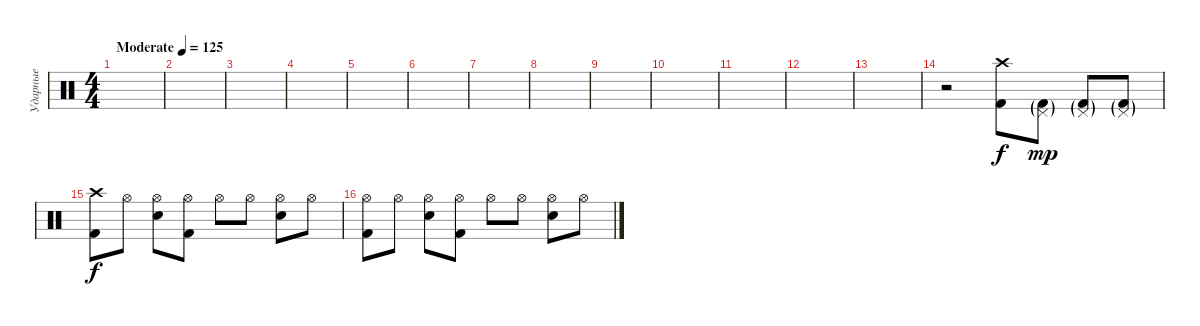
\track ("Ударные" "Ударные") {instrument percussion}
\staff {score}
\articulation defaults
\ts (4 4)
\tempo (125 "Moderate")
\clef neutral
\ks c
|
|
|
|
|
|
|
|
|
|
|
|
|
r.2 ("Crash high (hit)" "Kick (hit) 2").8 ("Pedal Hi-Hat (hit)"{g} "Kick (hit) 2"{g}).8{dy mp} ("Pedal Hi-Hat (hit)"{g} "Kick (hit) 2"{g}).8 ("Pedal Hi-Hat (hit)"{g} "Kick (hit) 2"{g}).8 |
("Crash high (hit)" "Kick (hit) 2").8{dy f} "Hi-Hat (open)".8 ("Hi-Hat (open)" "Snare (hit) 2").8 ("Hi-Hat (open)" "Kick (hit) 2").8 "Hi-Hat (open)".8 "Hi-Hat (open)".8 ("Hi-Hat (open)" "Snare (hit) 2").8 "Hi-Hat (open)".8 |
("Hi-Hat (open)" "Kick (hit) 2").8 "Hi-Hat (open)".8 ("Hi-Hat (open)" "Snare (hit) 2").8 ("Hi-Hat (open)" "Kick (hit) 2").8 "Hi-Hat (open)".8 "Hi-Hat (open)".8 ("Hi-Hat (open)" "Snare (hit) 2").8 "Hi-Hat (open)".8
